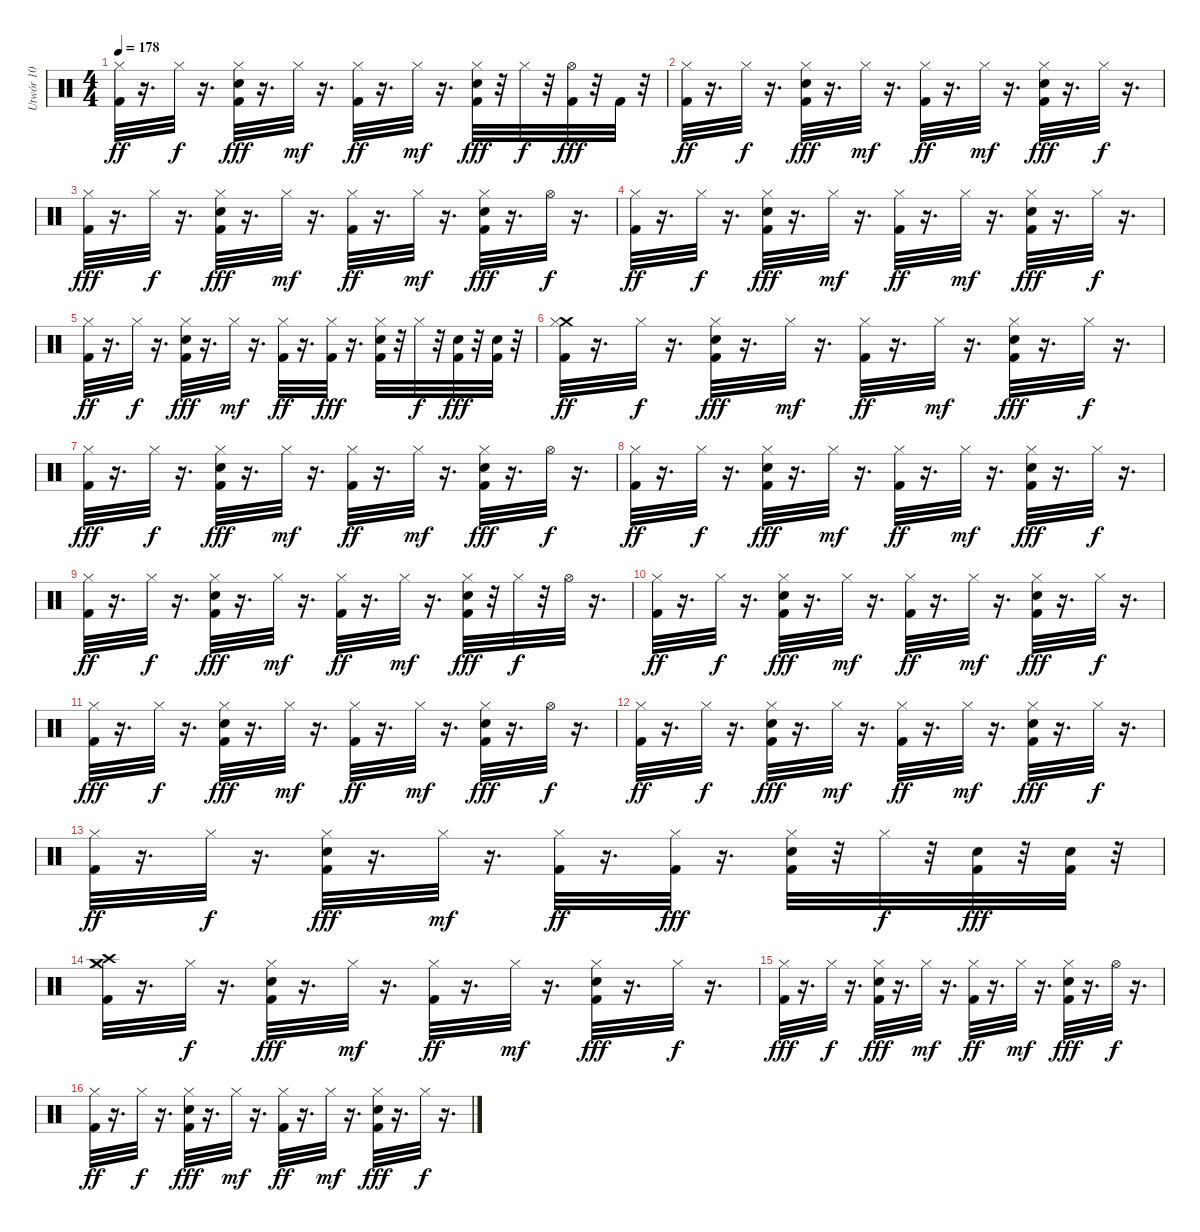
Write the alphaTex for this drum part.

\track ("Utwór 10" "Utwór 10") {instrument percussion}
\staff {score}
\articulation defaults
\ts (4 4)
\tempo 178
\clef neutral
\ks c
("Kick (hit) 2" "Hi-Hat (closed)").32{dy ff} r.16{d} "Hi-Hat (closed)".32{dy f} r.16{d} ("Kick (hit) 2" "Electric Snare (hit)" "Hi-Hat (closed)").32{dy fff} r.16{d} "Hi-Hat (closed)".32{dy mf} r.16{d} ("Kick (hit) 2" "Hi-Hat (closed)").32{dy ff} r.16{d} "Hi-Hat (closed)".32{dy mf} r.16{d} ("Kick (hit) 2" "Electric Snare (hit)" "Hi-Hat (closed)").32{dy fff} r.32 "Hi-Hat (closed)".32{dy f} r.32 ("Hi-Hat (open)" "Kick (hit) 2").32{dy fff} r.32 "Kick (hit) 2".32 r.32 |
("Kick (hit) 2" "Hi-Hat (closed)").32{dy ff} r.16{d} "Hi-Hat (closed)".32{dy f} r.16{d} ("Kick (hit) 2" "Electric Snare (hit)" "Hi-Hat (closed)").32{dy fff} r.16{d} "Hi-Hat (closed)".32{dy mf} r.16{d} ("Kick (hit) 2" "Hi-Hat (closed)").32{dy ff} r.16{d} "Hi-Hat (closed)".32{dy mf} r.16{d} ("Kick (hit) 2" "Electric Snare (hit)" "Hi-Hat (closed)").32{dy fff} r.16{d} "Hi-Hat (closed)".32{dy f} r.16{d} |
("Kick (hit) 2" "Hi-Hat (closed)").32{dy fff} r.16{d} "Hi-Hat (closed)".32{dy f} r.16{d} ("Kick (hit) 2" "Electric Snare (hit)" "Hi-Hat (closed)").32{dy fff} r.16{d} "Hi-Hat (closed)".32{dy mf} r.16{d} ("Kick (hit) 2" "Hi-Hat (closed)").32{dy ff} r.16{d} "Hi-Hat (closed)".32{dy mf} r.16{d} ("Kick (hit) 2" "Electric Snare (hit)" "Hi-Hat (closed)").32{dy fff} r.16{d} "Hi-Hat (open)".32{dy f} r.16{d} |
("Kick (hit) 2" "Hi-Hat (closed)").32{dy ff} r.16{d} "Hi-Hat (closed)".32{dy f} r.16{d} ("Kick (hit) 2" "Electric Snare (hit)" "Hi-Hat (closed)").32{dy fff} r.16{d} "Hi-Hat (closed)".32{dy mf} r.16{d} ("Kick (hit) 2" "Hi-Hat (closed)").32{dy ff} r.16{d} "Hi-Hat (closed)".32{dy mf} r.16{d} ("Kick (hit) 2" "Electric Snare (hit)" "Hi-Hat (closed)").32{dy fff} r.16{d} "Hi-Hat (closed)".32{dy f} r.16{d} |
("Kick (hit) 2" "Hi-Hat (closed)").32{dy ff} r.16{d} "Hi-Hat (closed)".32{dy f} r.16{d} ("Kick (hit) 2" "Electric Snare (hit)" "Hi-Hat (closed)").32{dy fff} r.16{d} "Hi-Hat (closed)".32{dy mf} r.16{d} ("Kick (hit) 2" "Hi-Hat (closed)").32{dy ff} r.16{d} ("Hi-Hat (closed)" "Kick (hit) 2").32{dy fff} r.16{d} ("Kick (hit) 2" "Electric Snare (hit)" "Hi-Hat (closed)").32 r.32 "Hi-Hat (closed)".32{dy f} r.32 ("Electric Snare (hit)" "Kick (hit) 2").32{dy fff} r.32 ("Electric Snare (hit)" "Kick (hit) 2").32 r.32 |
("Crash medium (hit)" "Kick (hit) 2" "Hi-Hat (closed)").32{dy ff} r.16{d} "Hi-Hat (closed)".32{dy f} r.16{d} ("Kick (hit) 2" "Electric Snare (hit)" "Hi-Hat (closed)").32{dy fff} r.16{d} "Hi-Hat (closed)".32{dy mf} r.16{d} ("Kick (hit) 2" "Hi-Hat (closed)").32{dy ff} r.16{d} "Hi-Hat (closed)".32{dy mf} r.16{d} ("Kick (hit) 2" "Electric Snare (hit)" "Hi-Hat (closed)").32{dy fff} r.16{d} "Hi-Hat (closed)".32{dy f} r.16{d} |
("Kick (hit) 2" "Hi-Hat (closed)").32{dy fff} r.16{d} "Hi-Hat (closed)".32{dy f} r.16{d} ("Kick (hit) 2" "Electric Snare (hit)" "Hi-Hat (closed)").32{dy fff} r.16{d} "Hi-Hat (closed)".32{dy mf} r.16{d} ("Kick (hit) 2" "Hi-Hat (closed)").32{dy ff} r.16{d} "Hi-Hat (closed)".32{dy mf} r.16{d} ("Kick (hit) 2" "Electric Snare (hit)" "Hi-Hat (closed)").32{dy fff} r.16{d} "Hi-Hat (open)".32{dy f} r.16{d} |
("Kick (hit) 2" "Hi-Hat (closed)").32{dy ff} r.16{d} "Hi-Hat (closed)".32{dy f} r.16{d} ("Kick (hit) 2" "Electric Snare (hit)" "Hi-Hat (closed)").32{dy fff} r.16{d} "Hi-Hat (closed)".32{dy mf} r.16{d} ("Kick (hit) 2" "Hi-Hat (closed)").32{dy ff} r.16{d} "Hi-Hat (closed)".32{dy mf} r.16{d} ("Kick (hit) 2" "Electric Snare (hit)" "Hi-Hat (closed)").32{dy fff} r.16{d} "Hi-Hat (closed)".32{dy f} r.16{d} |
("Kick (hit) 2" "Hi-Hat (closed)").32{dy ff} r.16{d} "Hi-Hat (closed)".32{dy f} r.16{d} ("Kick (hit) 2" "Electric Snare (hit)" "Hi-Hat (closed)").32{dy fff} r.16{d} "Hi-Hat (closed)".32{dy mf} r.16{d} ("Kick (hit) 2" "Hi-Hat (closed)").32{dy ff} r.16{d} "Hi-Hat (closed)".32{dy mf} r.16{d} ("Kick (hit) 2" "Electric Snare (hit)" "Hi-Hat (closed)").32{dy fff} r.32 "Hi-Hat (closed)".32{dy f} r.32 "Hi-Hat (open)".32 r.16{d} |
("Kick (hit) 2" "Hi-Hat (closed)").32{dy ff} r.16{d} "Hi-Hat (closed)".32{dy f} r.16{d} ("Kick (hit) 2" "Electric Snare (hit)" "Hi-Hat (closed)").32{dy fff} r.16{d} "Hi-Hat (closed)".32{dy mf} r.16{d} ("Kick (hit) 2" "Hi-Hat (closed)").32{dy ff} r.16{d} "Hi-Hat (closed)".32{dy mf} r.16{d} ("Kick (hit) 2" "Electric Snare (hit)" "Hi-Hat (closed)").32{dy fff} r.16{d} "Hi-Hat (closed)".32{dy f} r.16{d} |
("Kick (hit) 2" "Hi-Hat (closed)").32{dy fff} r.16{d} "Hi-Hat (closed)".32{dy f} r.16{d} ("Kick (hit) 2" "Electric Snare (hit)" "Hi-Hat (closed)").32{dy fff} r.16{d} "Hi-Hat (closed)".32{dy mf} r.16{d} ("Kick (hit) 2" "Hi-Hat (closed)").32{dy ff} r.16{d} "Hi-Hat (closed)".32{dy mf} r.16{d} ("Kick (hit) 2" "Electric Snare (hit)" "Hi-Hat (closed)").32{dy fff} r.16{d} "Hi-Hat (open)".32{dy f} r.16{d} |
("Kick (hit) 2" "Hi-Hat (closed)").32{dy ff} r.16{d} "Hi-Hat (closed)".32{dy f} r.16{d} ("Kick (hit) 2" "Electric Snare (hit)" "Hi-Hat (closed)").32{dy fff} r.16{d} "Hi-Hat (closed)".32{dy mf} r.16{d} ("Kick (hit) 2" "Hi-Hat (closed)").32{dy ff} r.16{d} "Hi-Hat (closed)".32{dy mf} r.16{d} ("Kick (hit) 2" "Electric Snare (hit)" "Hi-Hat (closed)").32{dy fff} r.16{d} "Hi-Hat (closed)".32{dy f} r.16{d} |
("Kick (hit) 2" "Hi-Hat (closed)").32{dy ff} r.16{d} "Hi-Hat (closed)".32{dy f} r.16{d} ("Kick (hit) 2" "Electric Snare (hit)" "Hi-Hat (closed)").32{dy fff} r.16{d} "Hi-Hat (closed)".32{dy mf} r.16{d} ("Kick (hit) 2" "Hi-Hat (closed)").32{dy ff} r.16{d} ("Hi-Hat (closed)" "Kick (hit) 2").32{dy fff} r.16{d} ("Kick (hit) 2" "Electric Snare (hit)" "Hi-Hat (closed)").32 r.32 "Hi-Hat (closed)".32{dy f} r.32 ("Electric Snare (hit)" "Kick (hit) 2").32{dy fff} r.32 ("Electric Snare (hit)" "Kick (hit) 2").32 r.32 |
("Crash medium (hit)" "Kick (hit) 2" "Hi-Hat (closed)" "Crash high (hit)").32 r.16{d} "Hi-Hat (closed)".32{dy f} r.16{d} ("Kick (hit) 2" "Electric Snare (hit)" "Hi-Hat (closed)").32{dy fff} r.16{d} "Hi-Hat (closed)".32{dy mf} r.16{d} ("Kick (hit) 2" "Hi-Hat (closed)").32{dy ff} r.16{d} "Hi-Hat (closed)".32{dy mf} r.16{d} ("Kick (hit) 2" "Electric Snare (hit)" "Hi-Hat (closed)").32{dy fff} r.16{d} "Hi-Hat (closed)".32{dy f} r.16{d} |
("Kick (hit) 2" "Hi-Hat (closed)").32{dy fff} r.16{d} "Hi-Hat (closed)".32{dy f} r.16{d} ("Kick (hit) 2" "Electric Snare (hit)" "Hi-Hat (closed)").32{dy fff} r.16{d} "Hi-Hat (closed)".32{dy mf} r.16{d} ("Kick (hit) 2" "Hi-Hat (closed)").32{dy ff} r.16{d} "Hi-Hat (closed)".32{dy mf} r.16{d} ("Kick (hit) 2" "Electric Snare (hit)" "Hi-Hat (closed)").32{dy fff} r.16{d} "Hi-Hat (open)".32{dy f} r.16{d} |
("Kick (hit) 2" "Hi-Hat (closed)").32{dy ff} r.16{d} "Hi-Hat (closed)".32{dy f} r.16{d} ("Kick (hit) 2" "Electric Snare (hit)" "Hi-Hat (closed)").32{dy fff} r.16{d} "Hi-Hat (closed)".32{dy mf} r.16{d} ("Kick (hit) 2" "Hi-Hat (closed)").32{dy ff} r.16{d} "Hi-Hat (closed)".32{dy mf} r.16{d} ("Kick (hit) 2" "Electric Snare (hit)" "Hi-Hat (closed)").32{dy fff} r.16{d} "Hi-Hat (closed)".32{dy f} r.16{d}
